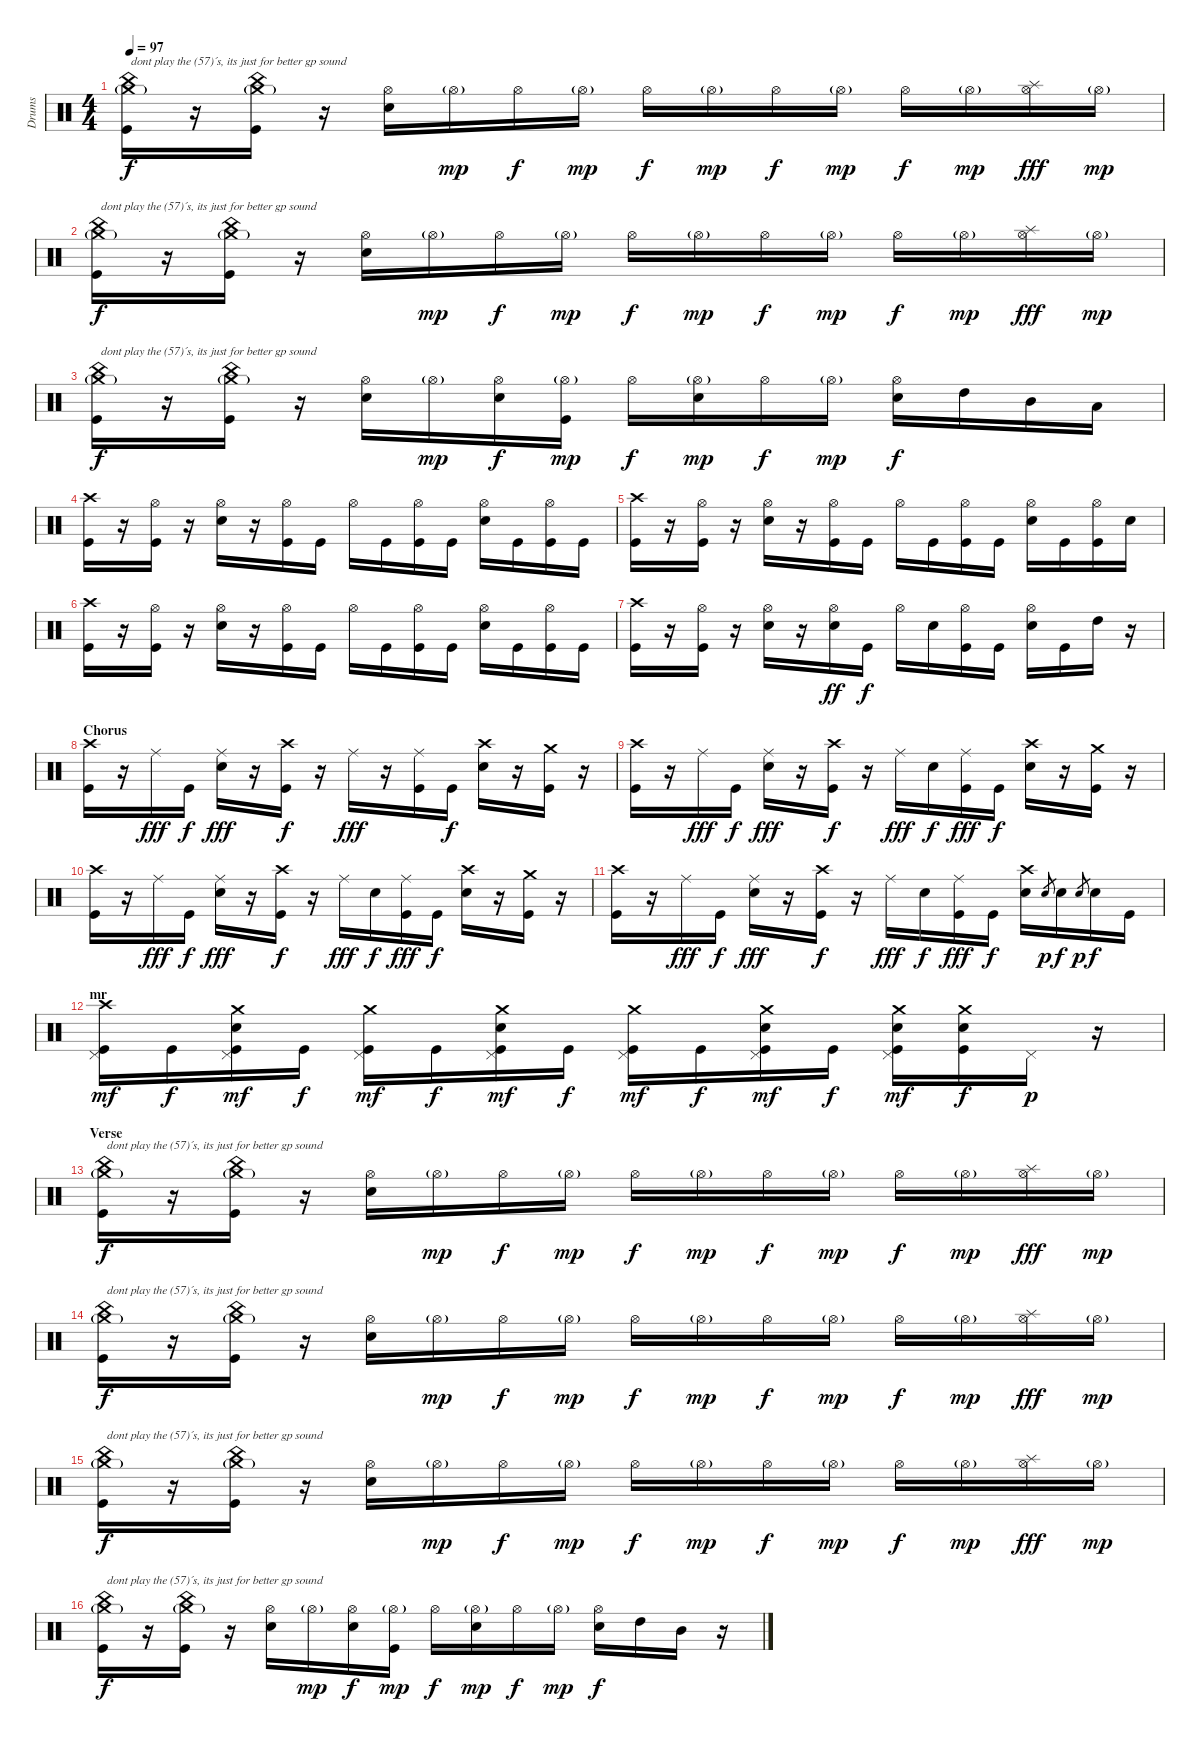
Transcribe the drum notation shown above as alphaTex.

\track ("Drums" "Drums") {instrument percussion}
\staff {score}
\articulation defaults
\ts (4 4)
\tempo 97
\clef neutral
\ks c
("China (hit)" "Crash medium (hit)"{g} "Kick (hit)").16{txt "dont play the (57)´s, its just for better gp sound" dy f} r.16 ("China (hit)" "Crash medium (hit)"{g} "Kick (hit)").16 r.16 ("Hi-Hat (open)" "Electric Snare (hit)").16 "Hi-Hat (open)"{g}.16{dy mp} "Hi-Hat (open)".16{dy f} "Hi-Hat (open)"{g}.16{dy mp} "Hi-Hat (open)".16{dy f} "Hi-Hat (open)"{g}.16{dy mp} "Hi-Hat (open)".16{dy f} "Hi-Hat (open)"{g}.16{dy mp} "Hi-Hat (open)".16{dy f} "Hi-Hat (open)"{g}.16{dy mp} ("Splash (hit)" "Hi-Hat (open)").16{dy fff} "Hi-Hat (open)"{g}.16{dy mp} |
("China (hit)" "Crash medium (hit)"{g} "Kick (hit)").16{txt "dont play the (57)´s, its just for better gp sound" dy f} r.16 ("China (hit)" "Crash medium (hit)"{g} "Kick (hit)").16 r.16 ("Hi-Hat (open)" "Electric Snare (hit)").16 "Hi-Hat (open)"{g}.16{dy mp} "Hi-Hat (open)".16{dy f} "Hi-Hat (open)"{g}.16{dy mp} "Hi-Hat (open)".16{dy f} "Hi-Hat (open)"{g}.16{dy mp} "Hi-Hat (open)".16{dy f} "Hi-Hat (open)"{g}.16{dy mp} "Hi-Hat (open)".16{dy f} "Hi-Hat (open)"{g}.16{dy mp} ("Splash (hit)" "Hi-Hat (open)").16{dy fff} "Hi-Hat (open)"{g}.16{dy mp} |
("China (hit)" "Crash medium (hit)"{g} "Kick (hit)").16{txt "dont play the (57)´s, its just for better gp sound" dy f} r.16 ("China (hit)" "Crash medium (hit)"{g} "Kick (hit)").16 r.16 ("Hi-Hat (open)" "Electric Snare (hit)").16 "Hi-Hat (open)"{g}.16{dy mp} ("Hi-Hat (open)" "Electric Snare (hit)").16{dy f} ("Hi-Hat (open)"{g} "Kick (hit)").16{dy mp} "Hi-Hat (open)".16{dy f} ("Hi-Hat (open)"{g} "Electric Snare (hit)").16{dy mp} "Hi-Hat (open)".16{dy f} "Hi-Hat (open)"{g}.16{dy mp} ("Hi-Hat (open)" "Electric Snare (hit)").16{dy f} "High Tom (hit)".16 "Mid Tom (hit)".16 "Low Tom (hit)".16 |
("Crash high (hit)" "Kick (hit)").16 r.16 ("Hi-Hat (open)" "Kick (hit)").16 r.16 ("Hi-Hat (open)" "Electric Snare (hit)").16 r.16 ("Hi-Hat (open)" "Kick (hit)").16 "Kick (hit)".16 "Hi-Hat (open)".16 "Kick (hit)".16 ("Hi-Hat (open)" "Kick (hit)").16 "Kick (hit)".16 ("Hi-Hat (open)" "Electric Snare (hit)").16 "Kick (hit)".16 ("Hi-Hat (open)" "Kick (hit)").16 "Kick (hit)".16 |
("Crash high (hit)" "Kick (hit)").16 r.16 ("Hi-Hat (open)" "Kick (hit)").16 r.16 ("Hi-Hat (open)" "Electric Snare (hit)").16 r.16 ("Hi-Hat (open)" "Kick (hit)").16 "Kick (hit)".16 "Hi-Hat (open)".16 "Kick (hit)".16 ("Hi-Hat (open)" "Kick (hit)").16 "Kick (hit)".16 ("Hi-Hat (open)" "Electric Snare (hit)").16 "Kick (hit)".16 ("Hi-Hat (open)" "Kick (hit)").16 "Electric Snare (hit)".16 |
("Crash high (hit)" "Kick (hit)").16 r.16 ("Hi-Hat (open)" "Kick (hit)").16 r.16 ("Hi-Hat (open)" "Electric Snare (hit)").16 r.16 ("Hi-Hat (open)" "Kick (hit)").16 "Kick (hit)".16 "Hi-Hat (open)".16 "Kick (hit)".16 ("Hi-Hat (open)" "Kick (hit)").16 "Kick (hit)".16 ("Hi-Hat (open)" "Electric Snare (hit)").16 "Kick (hit)".16 ("Hi-Hat (open)" "Kick (hit)").16 "Kick (hit)".16 |
("Crash high (hit)" "Kick (hit)").16 r.16 ("Hi-Hat (open)" "Kick (hit)").16 r.16 ("Hi-Hat (open)" "Electric Snare (hit)").16 r.16 ("Hi-Hat (open)" "Electric Snare (hit)").16{dy ff} "Kick (hit)".16{dy f} "Hi-Hat (open)".16 "Electric Snare (hit)".16 ("Hi-Hat (open)" "Kick (hit)").16 "Kick (hit)".16 ("Hi-Hat (open)" "Electric Snare (hit)").16 "Kick (hit)".16 "High Tom (hit)".16 r.16 |
\section ("" "Chorus")
("Crash high (hit)" "Kick (hit)").16 r.16 "Ride (middle)".16{dy fff} "Kick (hit)".16{dy f} ("Ride (middle)" "Electric Snare (hit)").16{dy fff} r.16 ("Crash high (hit)" "Kick (hit)").16{dy f} r.16 "Ride (middle)".16{dy fff} r.16 ("Ride (middle)" "Kick (hit)").16 "Kick (hit)".16{dy f} ("Crash high (hit)" "Electric Snare (hit)").16 r.16 ("Crash medium (hit)" "Kick (hit)").16 r.16 |
("Crash high (hit)" "Kick (hit)").16 r.16 "Ride (middle)".16{dy fff} "Kick (hit)".16{dy f} ("Ride (middle)" "Electric Snare (hit)").16{dy fff} r.16 ("Crash high (hit)" "Kick (hit)").16{dy f} r.16 "Ride (middle)".16{dy fff} "Electric Snare (hit)".16{dy f} ("Ride (middle)" "Kick (hit)").16{dy fff} "Kick (hit)".16{dy f} ("Crash high (hit)" "Electric Snare (hit)").16 r.16 ("Crash medium (hit)" "Kick (hit)").16 r.16 |
("Crash high (hit)" "Kick (hit)").16 r.16 "Ride (middle)".16{dy fff} "Kick (hit)".16{dy f} ("Ride (middle)" "Electric Snare (hit)").16{dy fff} r.16 ("Crash high (hit)" "Kick (hit)").16{dy f} r.16 "Ride (middle)".16{dy fff} "Electric Snare (hit)".16{dy f} ("Ride (middle)" "Kick (hit)").16{dy fff} "Kick (hit)".16{dy f} ("Crash high (hit)" "Electric Snare (hit)").16 r.16 ("Crash medium (hit)" "Kick (hit)").16 r.16 |
("Crash high (hit)" "Kick (hit)").16 r.16 "Ride (middle)".16{dy fff} "Kick (hit)".16{dy f} ("Ride (middle)" "Electric Snare (hit)").16{dy fff} r.16 ("Crash high (hit)" "Kick (hit)").16{dy f} r.16 "Ride (middle)".16{dy fff} "Electric Snare (hit)".16{dy f} ("Ride (middle)" "Kick (hit)").16{dy fff} "Kick (hit)".16{dy f} ("Crash high (hit)" "Electric Snare (hit)").16 "Electric Snare (hit)".8{gr dy p} "Electric Snare (hit)".16{dy f} "Electric Snare (hit)".8{gr dy p} "Electric Snare (hit)".16{dy f} "Kick (hit)".16 |
\section ("" "mr")
("Crash high (hit)" "Pedal Hi-Hat (hit)" "Kick (hit)").16{dy mf} "Kick (hit)".16{dy f} ("Crash medium (hit)" "Pedal Hi-Hat (hit)" "Electric Snare (hit)" "Kick (hit)").16{dy mf} "Kick (hit)".16{dy f} ("Crash medium (hit)" "Pedal Hi-Hat (hit)" "Kick (hit)").16{dy mf} "Kick (hit)".16{dy f} ("Crash medium (hit)" "Pedal Hi-Hat (hit)" "Electric Snare (hit)" "Kick (hit)").16{dy mf} "Kick (hit)".16{dy f} ("Crash medium (hit)" "Pedal Hi-Hat (hit)" "Kick (hit)").16{dy mf} "Kick (hit)".16{dy f} ("Crash medium (hit)" "Pedal Hi-Hat (hit)" "Electric Snare (hit)" "Kick (hit)").16{dy mf} "Kick (hit)".16{dy f} ("Crash medium (hit)" "Pedal Hi-Hat (hit)" "Electric Snare (hit)" "Kick (hit)").16{dy mf} ("Crash medium (hit)" "Electric Snare (hit)" "Kick (hit)").16{dy f} "Pedal Hi-Hat (hit)".16{dy p} r.16 |
\section ("" "Verse")
("China (hit)" "Crash medium (hit)"{g} "Kick (hit)").16{txt "dont play the (57)´s, its just for better gp sound" dy f} r.16 ("China (hit)" "Crash medium (hit)"{g} "Kick (hit)").16 r.16 ("Hi-Hat (open)" "Electric Snare (hit)").16 "Hi-Hat (open)"{g}.16{dy mp} "Hi-Hat (open)".16{dy f} "Hi-Hat (open)"{g}.16{dy mp} "Hi-Hat (open)".16{dy f} "Hi-Hat (open)"{g}.16{dy mp} "Hi-Hat (open)".16{dy f} "Hi-Hat (open)"{g}.16{dy mp} "Hi-Hat (open)".16{dy f} "Hi-Hat (open)"{g}.16{dy mp} ("Splash (hit)" "Hi-Hat (open)").16{dy fff} "Hi-Hat (open)"{g}.16{dy mp} |
("China (hit)" "Crash medium (hit)"{g} "Kick (hit)").16{txt "dont play the (57)´s, its just for better gp sound" dy f} r.16 ("China (hit)" "Crash medium (hit)"{g} "Kick (hit)").16 r.16 ("Hi-Hat (open)" "Electric Snare (hit)").16 "Hi-Hat (open)"{g}.16{dy mp} "Hi-Hat (open)".16{dy f} "Hi-Hat (open)"{g}.16{dy mp} "Hi-Hat (open)".16{dy f} "Hi-Hat (open)"{g}.16{dy mp} "Hi-Hat (open)".16{dy f} "Hi-Hat (open)"{g}.16{dy mp} "Hi-Hat (open)".16{dy f} "Hi-Hat (open)"{g}.16{dy mp} ("Splash (hit)" "Hi-Hat (open)").16{dy fff} "Hi-Hat (open)"{g}.16{dy mp} |
("China (hit)" "Crash medium (hit)"{g} "Kick (hit)").16{txt "dont play the (57)´s, its just for better gp sound" dy f} r.16 ("China (hit)" "Crash medium (hit)"{g} "Kick (hit)").16 r.16 ("Hi-Hat (open)" "Electric Snare (hit)").16 "Hi-Hat (open)"{g}.16{dy mp} "Hi-Hat (open)".16{dy f} "Hi-Hat (open)"{g}.16{dy mp} "Hi-Hat (open)".16{dy f} "Hi-Hat (open)"{g}.16{dy mp} "Hi-Hat (open)".16{dy f} "Hi-Hat (open)"{g}.16{dy mp} "Hi-Hat (open)".16{dy f} "Hi-Hat (open)"{g}.16{dy mp} ("Splash (hit)" "Hi-Hat (open)").16{dy fff} "Hi-Hat (open)"{g}.16{dy mp} |
("China (hit)" "Crash medium (hit)"{g} "Kick (hit)").16{txt "dont play the (57)´s, its just for better gp sound" dy f} r.16 ("China (hit)" "Crash medium (hit)"{g} "Kick (hit)").16 r.16 ("Hi-Hat (open)" "Electric Snare (hit)").16 "Hi-Hat (open)"{g}.16{dy mp} ("Hi-Hat (open)" "Electric Snare (hit)").16{dy f} ("Hi-Hat (open)"{g} "Kick (hit)").16{dy mp} "Hi-Hat (open)".16{dy f} ("Hi-Hat (open)"{g} "Electric Snare (hit)").16{dy mp} "Hi-Hat (open)".16{dy f} "Hi-Hat (open)"{g}.16{dy mp} ("Hi-Hat (open)" "Electric Snare (hit)").16{dy f} "High Tom (hit)".16 "Mid Tom (hit)".16 r.16
